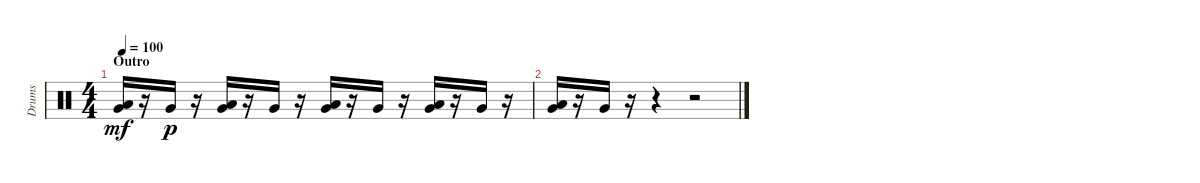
\track ("Drums" "Drums") {instrument percussion}
\staff {score}
\articulation defaults
\ts (4 4)
\section ("" "Outro")
\tempo 100
\clef neutral
\ks c
("Low Tom (hit)" "Very Low Tom (hit)").16{dy mf} r.16 "Very Low Tom (hit)".16{dy p} r.16 ("Low Tom (hit)" "Very Low Tom (hit)").16 r.16 "Very Low Tom (hit)".16 r.16 ("Low Tom (hit)" "Very Low Tom (hit)").16 r.16 "Very Low Tom (hit)".16 r.16 ("Low Tom (hit)" "Very Low Tom (hit)").16 r.16 "Very Low Tom (hit)".16 r.16 |
("Low Tom (hit)" "Very Low Tom (hit)").16 r.16 "Very Low Tom (hit)".16 r.16 r.4 r.2
